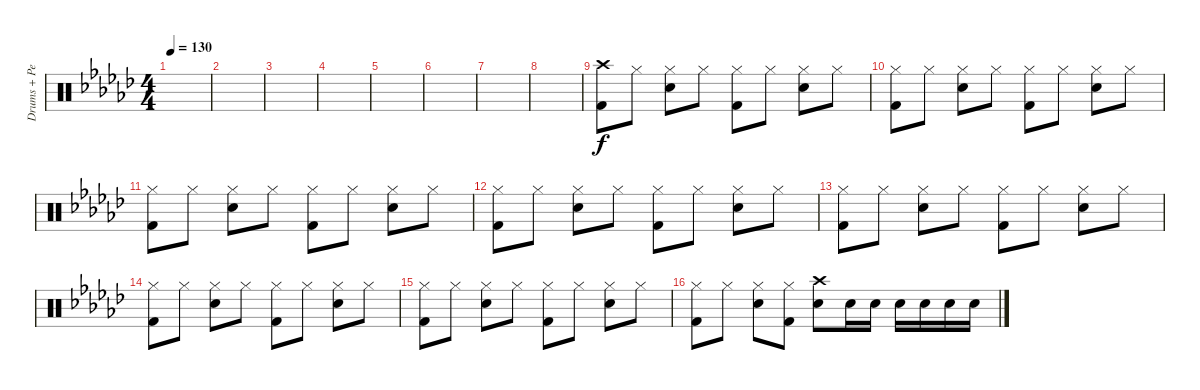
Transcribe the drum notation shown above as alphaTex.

\track ("Drums + Percussions" "Drums + Pe") {instrument percussion}
\staff {score}
\articulation defaults
\ts (4 4)
\tempo 130
\clef neutral
\ks gb
|
|
|
|
|
|
|
|
("Crash high (hit)" "Kick (hit) 2").8 "Hi-Hat (closed)".8 ("Hi-Hat (closed)" "Electric Snare (hit)").8 "Hi-Hat (closed)".8 ("Hi-Hat (closed)" "Kick (hit) 2").8 "Hi-Hat (closed)".8 ("Hi-Hat (closed)" "Electric Snare (hit)").8 "Hi-Hat (closed)".8 |
("Hi-Hat (closed)" "Kick (hit) 2").8 "Hi-Hat (closed)".8 ("Hi-Hat (closed)" "Electric Snare (hit)").8 "Hi-Hat (closed)".8 ("Hi-Hat (closed)" "Kick (hit) 2").8 "Hi-Hat (closed)".8 ("Hi-Hat (closed)" "Electric Snare (hit)").8 "Hi-Hat (closed)".8 |
("Hi-Hat (closed)" "Kick (hit) 2").8 "Hi-Hat (closed)".8 ("Hi-Hat (closed)" "Electric Snare (hit)").8 "Hi-Hat (closed)".8 ("Hi-Hat (closed)" "Kick (hit) 2").8 "Hi-Hat (closed)".8 ("Hi-Hat (closed)" "Electric Snare (hit)").8 "Hi-Hat (closed)".8 |
("Hi-Hat (closed)" "Kick (hit) 2").8 "Hi-Hat (closed)".8 ("Hi-Hat (closed)" "Electric Snare (hit)").8 "Hi-Hat (closed)".8 ("Hi-Hat (closed)" "Kick (hit) 2").8 "Hi-Hat (closed)".8 ("Hi-Hat (closed)" "Electric Snare (hit)").8 "Hi-Hat (closed)".8 |
("Hi-Hat (closed)" "Kick (hit) 2").8 "Hi-Hat (closed)".8 ("Hi-Hat (closed)" "Electric Snare (hit)").8 "Hi-Hat (closed)".8 ("Hi-Hat (closed)" "Kick (hit) 2").8 "Hi-Hat (closed)".8 ("Hi-Hat (closed)" "Electric Snare (hit)").8 "Hi-Hat (closed)".8 |
("Hi-Hat (closed)" "Kick (hit) 2").8 "Hi-Hat (closed)".8 ("Hi-Hat (closed)" "Electric Snare (hit)").8 "Hi-Hat (closed)".8 ("Hi-Hat (closed)" "Kick (hit) 2").8 "Hi-Hat (closed)".8 ("Hi-Hat (closed)" "Electric Snare (hit)").8 "Hi-Hat (closed)".8 |
("Hi-Hat (closed)" "Kick (hit) 2").8 "Hi-Hat (closed)".8 ("Hi-Hat (closed)" "Electric Snare (hit)").8 "Hi-Hat (closed)".8 ("Hi-Hat (closed)" "Kick (hit) 2").8 "Hi-Hat (closed)".8 ("Hi-Hat (closed)" "Electric Snare (hit)").8 "Hi-Hat (closed)".8 |
("Hi-Hat (closed)" "Kick (hit) 2").8 "Hi-Hat (closed)".8 ("Hi-Hat (closed)" "Electric Snare (hit)").8 ("Hi-Hat (closed)" "Kick (hit) 2").8 ("Crash high (hit)" "Electric Snare (hit)").8 "Electric Snare (hit)".16 "Electric Snare (hit)".16 "Electric Snare (hit)".16 "Electric Snare (hit)".16 "Electric Snare (hit)".16 "Electric Snare (hit)".16
